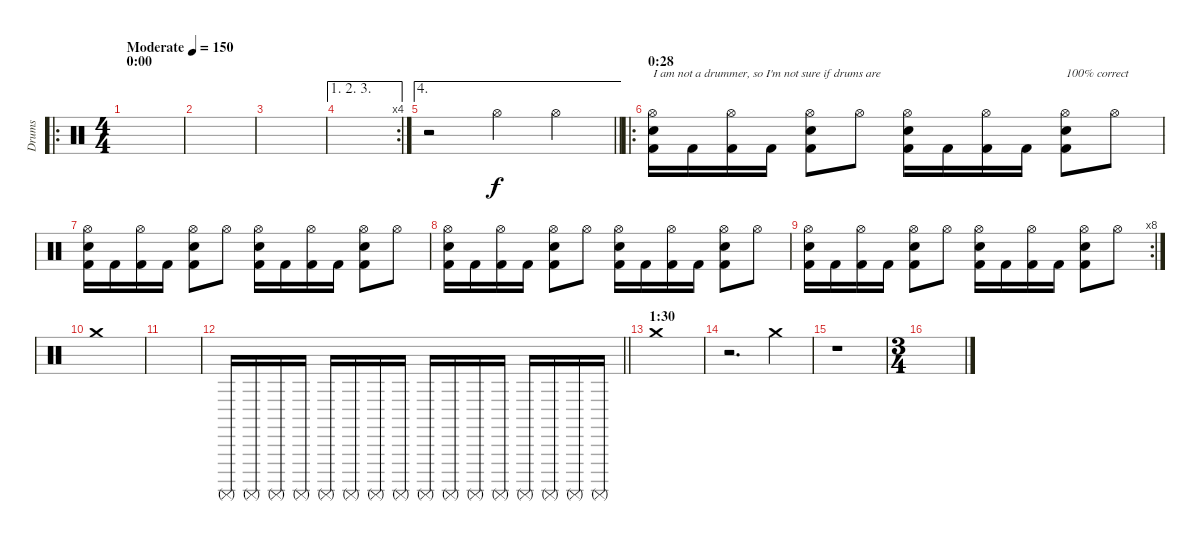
\track ("Drums" "Drums") {instrument percussion}
\staff {score}
\articulation defaults
\ro
\ts (4 4)
\section ("" "0:00")
\tempo (150 "Moderate")
\clef neutral
\ks c
|
|
|
\ae (1 2 3)
\rc 4
|
\ae 4
\barLineRight lightlight
r.2 "Hi-Hat (open)".4 "Hi-Hat (open)".4 |
\ro
\section ("" "0:28")
("Hi-Hat (open)" "Electric Snare (hit)" "Kick (hit) 2").16{txt "I am not a drummer, so I'm not sure if drums are "} "Kick (hit) 2".16 ("Hi-Hat (open)" "Kick (hit) 2").16 "Kick (hit) 2".16 ("Hi-Hat (open)" "Electric Snare (hit)" "Kick (hit) 2").8 "Hi-Hat (open)".8 ("Hi-Hat (open)" "Electric Snare (hit)" "Kick (hit) 2").16 "Kick (hit) 2".16 ("Hi-Hat (open)" "Kick (hit) 2").16 "Kick (hit) 2".16 ("Hi-Hat (open)" "Electric Snare (hit)" "Kick (hit) 2").8{txt "100% correct"} "Hi-Hat (open)".8 |
("Hi-Hat (open)" "Electric Snare (hit)" "Kick (hit) 2").16 "Kick (hit) 2".16 ("Hi-Hat (open)" "Kick (hit) 2").16 "Kick (hit) 2".16 ("Hi-Hat (open)" "Electric Snare (hit)" "Kick (hit) 2").8 "Hi-Hat (open)".8 ("Hi-Hat (open)" "Electric Snare (hit)" "Kick (hit) 2").16 "Kick (hit) 2".16 ("Hi-Hat (open)" "Kick (hit) 2").16 "Kick (hit) 2".16 ("Hi-Hat (open)" "Electric Snare (hit)" "Kick (hit) 2").8 "Hi-Hat (open)".8 |
("Hi-Hat (open)" "Electric Snare (hit)" "Kick (hit) 2").16 "Kick (hit) 2".16 ("Hi-Hat (open)" "Kick (hit) 2").16 "Kick (hit) 2".16 ("Hi-Hat (open)" "Electric Snare (hit)" "Kick (hit) 2").8 "Hi-Hat (open)".8 ("Hi-Hat (open)" "Electric Snare (hit)" "Kick (hit) 2").16 "Kick (hit) 2".16 ("Hi-Hat (open)" "Kick (hit) 2").16 "Kick (hit) 2".16 ("Hi-Hat (open)" "Electric Snare (hit)" "Kick (hit) 2").8 "Hi-Hat (open)".8 |
\rc 8
("Hi-Hat (open)" "Electric Snare (hit)" "Kick (hit) 2").16 "Kick (hit) 2".16 ("Hi-Hat (open)" "Kick (hit) 2").16 "Kick (hit) 2".16 ("Hi-Hat (open)" "Electric Snare (hit)" "Kick (hit) 2").8 "Hi-Hat (open)".8 ("Hi-Hat (open)" "Electric Snare (hit)" "Kick (hit) 2").16 "Kick (hit) 2".16 ("Hi-Hat (open)" "Kick (hit) 2").16 "Kick (hit) 2".16 ("Hi-Hat (open)" "Electric Snare (hit)" "Kick (hit) 2").8 "Hi-Hat (open)".8 |
"Crash medium (hit)".1 |
|
\barLineRight lightlight "Surdo (mute)".16 "Surdo (mute)".16 "Surdo (mute)".16 "Surdo (mute)".16 "Surdo (mute)".16 "Surdo (mute)".16 "Surdo (mute)".16 "Surdo (mute)".16 "Surdo (mute)".16 "Surdo (mute)".16 "Surdo (mute)".16 "Surdo (mute)".16 "Surdo (mute)".16 "Surdo (mute)".16 "Surdo (mute)".16 "Surdo (mute)".16
|
\section ("" "1:30")
"Crash medium (hit)".1 |
r.2{d} "Crash medium (hit)".4 |
r.1 |
\ts (3 4)
